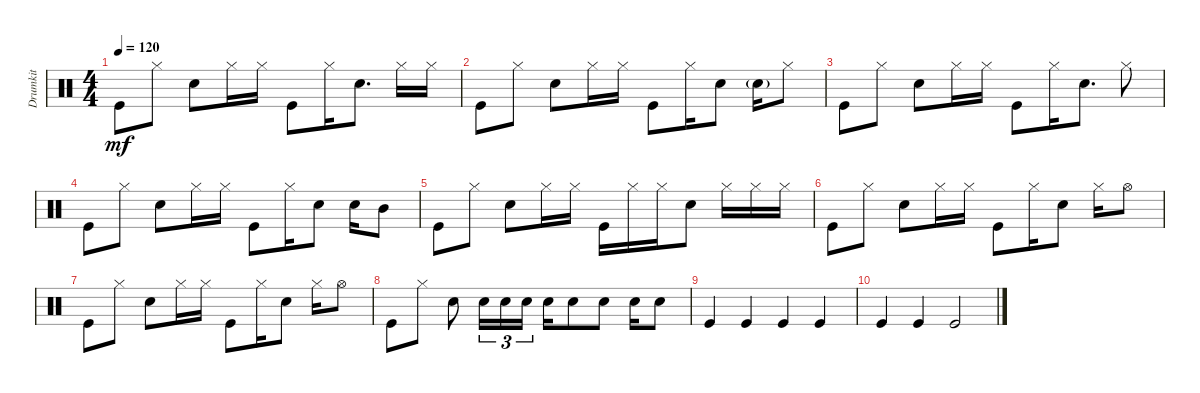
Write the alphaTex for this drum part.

\track ("Drumkit" "Drumkit") {instrument percussion}
\staff {score}
\articulation defaults
\ts (4 4)
\tempo 120
\clef neutral
\ks c "Kick (hit)".8{dy mf} "Hi-Hat (closed)".8 "Snare (hit) 2".8 "Hi-Hat (closed)".16 "Hi-Hat (closed)".16 "Kick (hit)".8 "Hi-Hat (closed)".16 "Snare (hit) 2".8{d} "Hi-Hat (closed)".16 "Hi-Hat (closed)".16
|
"Kick (hit)".8 "Hi-Hat (closed)".8 "Snare (hit) 2".8 "Hi-Hat (closed)".16 "Hi-Hat (closed)".16 "Kick (hit)".8 "Hi-Hat (closed)".16 "Snare (hit) 2".8 "Snare (hit) 2"{g}.16 "Hi-Hat (closed)".8 |
"Kick (hit)".8 "Hi-Hat (closed)".8 "Snare (hit) 2".8 "Hi-Hat (closed)".16 "Hi-Hat (closed)".16 "Kick (hit)".8 "Hi-Hat (closed)".16 "Snare (hit) 2".8{d} "Hi-Hat (closed)".8 |
"Kick (hit)".8 "Hi-Hat (closed)".8 "Snare (hit) 2".8 "Hi-Hat (closed)".16 "Hi-Hat (closed)".16 "Kick (hit)".8 "Hi-Hat (closed)".16 "Snare (hit) 2".8 "Snare (hit) 2".16 "Mid Tom (hit)".8 |
"Kick (hit)".8 "Hi-Hat (closed)".8 "Snare (hit) 2".8 "Hi-Hat (closed)".16 "Hi-Hat (closed)".16 "Kick (hit)".16 "Hi-Hat (closed)".16 "Hi-Hat (closed)".16 "Snare (hit) 2".8 "Hi-Hat (closed)".16 "Hi-Hat (closed)".16 "Hi-Hat (closed)".16 |
"Kick (hit)".8 "Hi-Hat (closed)".8 "Snare (hit) 2".8 "Hi-Hat (closed)".16 "Hi-Hat (closed)".16 "Kick (hit)".8 "Hi-Hat (closed)".16 "Snare (hit) 2".8 "Hi-Hat (closed)".16 "Hi-Hat (open)".8 |
"Kick (hit)".8 "Hi-Hat (closed)".8 "Snare (hit) 2".8 "Hi-Hat (closed)".16 "Hi-Hat (closed)".16 "Kick (hit)".8 "Hi-Hat (closed)".16 "Snare (hit) 2".8 "Hi-Hat (closed)".16 "Hi-Hat (open)".8 |
"Kick (hit)".8 "Hi-Hat (closed)".8 "Snare (hit) 2".8 "Snare (hit) 2".16{tu (3 2)} "Snare (hit) 2".16{tu (3 2)} "Snare (hit) 2".16{tu (3 2)} "Snare (hit) 2".16 "Snare (hit) 2".8 "Snare (hit) 2".8 "Snare (hit) 2".16 "Snare (hit) 2".8 |
"Kick (hit)".4 "Kick (hit)".4 "Kick (hit)".4 "Kick (hit)".4 |
"Kick (hit)".4 "Kick (hit)".4 "Kick (hit)".2
